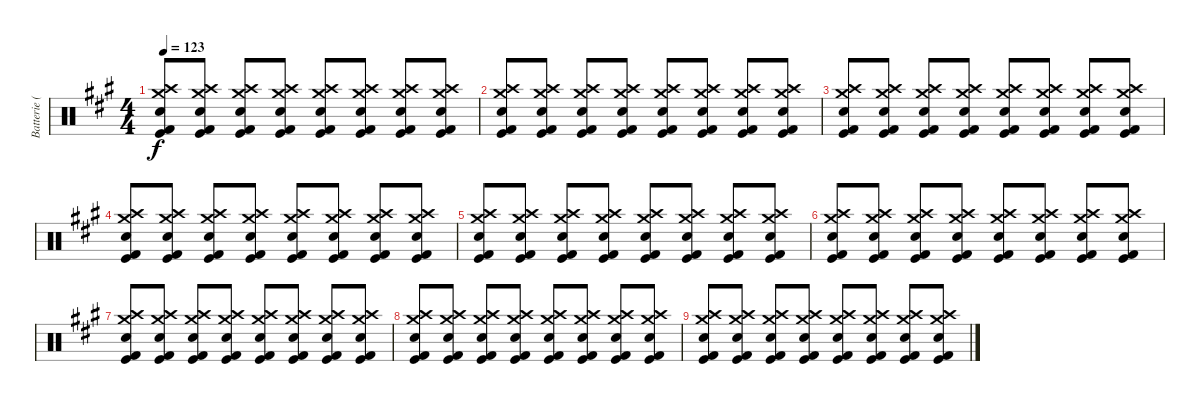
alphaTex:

\track ("Batterie (Dominic Howard)" "Batterie (") {instrument percussion}
\staff {score}
\articulation defaults
\ts (4 4)
\tempo 123
\clef neutral
\ks a
("Snare (hit) 2" "Crash medium (hit)" "Crash high (hit)" "Kick (hit) 2" "Kick (hit)").8{dy f} ("Snare (hit) 2" "Crash medium (hit)" "Crash high (hit)" "Kick (hit) 2" "Kick (hit)").8 ("Snare (hit) 2" "Crash medium (hit)" "Crash high (hit)" "Kick (hit) 2" "Kick (hit)").8 ("Snare (hit) 2" "Crash medium (hit)" "Crash high (hit)" "Kick (hit) 2" "Kick (hit)").8 ("Snare (hit) 2" "Crash medium (hit)" "Crash high (hit)" "Kick (hit) 2" "Kick (hit)").8 ("Snare (hit) 2" "Crash medium (hit)" "Crash high (hit)" "Kick (hit) 2" "Kick (hit)").8 ("Snare (hit) 2" "Crash medium (hit)" "Crash high (hit)" "Kick (hit) 2" "Kick (hit)").8 ("Snare (hit) 2" "Crash medium (hit)" "Crash high (hit)" "Kick (hit) 2" "Kick (hit)").8 |
("Snare (hit) 2" "Crash medium (hit)" "Crash high (hit)" "Kick (hit) 2" "Kick (hit)").8 ("Snare (hit) 2" "Crash medium (hit)" "Crash high (hit)" "Kick (hit) 2" "Kick (hit)").8 ("Snare (hit) 2" "Crash medium (hit)" "Crash high (hit)" "Kick (hit) 2" "Kick (hit)").8 ("Snare (hit) 2" "Crash medium (hit)" "Crash high (hit)" "Kick (hit) 2" "Kick (hit)").8 ("Snare (hit) 2" "Crash medium (hit)" "Crash high (hit)" "Kick (hit) 2" "Kick (hit)").8 ("Snare (hit) 2" "Crash medium (hit)" "Crash high (hit)" "Kick (hit) 2" "Kick (hit)").8 ("Snare (hit) 2" "Crash medium (hit)" "Crash high (hit)" "Kick (hit) 2" "Kick (hit)").8 ("Snare (hit) 2" "Crash medium (hit)" "Crash high (hit)" "Kick (hit) 2" "Kick (hit)").8 |
("Snare (hit) 2" "Crash medium (hit)" "Crash high (hit)" "Kick (hit) 2" "Kick (hit)").8 ("Snare (hit) 2" "Crash medium (hit)" "Crash high (hit)" "Kick (hit) 2" "Kick (hit)").8 ("Snare (hit) 2" "Crash medium (hit)" "Crash high (hit)" "Kick (hit) 2" "Kick (hit)").8 ("Snare (hit) 2" "Crash medium (hit)" "Crash high (hit)" "Kick (hit) 2" "Kick (hit)").8 ("Snare (hit) 2" "Crash medium (hit)" "Crash high (hit)" "Kick (hit) 2" "Kick (hit)").8 ("Snare (hit) 2" "Crash medium (hit)" "Crash high (hit)" "Kick (hit) 2" "Kick (hit)").8 ("Snare (hit) 2" "Crash medium (hit)" "Crash high (hit)" "Kick (hit) 2" "Kick (hit)").8 ("Snare (hit) 2" "Crash medium (hit)" "Crash high (hit)" "Kick (hit) 2" "Kick (hit)").8 |
("Snare (hit) 2" "Crash medium (hit)" "Crash high (hit)" "Kick (hit) 2" "Kick (hit)").8 ("Snare (hit) 2" "Crash medium (hit)" "Crash high (hit)" "Kick (hit) 2" "Kick (hit)").8 ("Snare (hit) 2" "Crash medium (hit)" "Crash high (hit)" "Kick (hit) 2" "Kick (hit)").8 ("Snare (hit) 2" "Crash medium (hit)" "Crash high (hit)" "Kick (hit) 2" "Kick (hit)").8 ("Snare (hit) 2" "Crash medium (hit)" "Crash high (hit)" "Kick (hit) 2" "Kick (hit)").8 ("Snare (hit) 2" "Crash medium (hit)" "Crash high (hit)" "Kick (hit) 2" "Kick (hit)").8 ("Snare (hit) 2" "Crash medium (hit)" "Crash high (hit)" "Kick (hit) 2" "Kick (hit)").8 ("Snare (hit) 2" "Crash medium (hit)" "Crash high (hit)" "Kick (hit) 2" "Kick (hit)").8 |
("Snare (hit) 2" "Crash medium (hit)" "Crash high (hit)" "Kick (hit) 2" "Kick (hit)").8 ("Snare (hit) 2" "Crash medium (hit)" "Crash high (hit)" "Kick (hit) 2" "Kick (hit)").8 ("Snare (hit) 2" "Crash medium (hit)" "Crash high (hit)" "Kick (hit) 2" "Kick (hit)").8 ("Snare (hit) 2" "Crash medium (hit)" "Crash high (hit)" "Kick (hit) 2" "Kick (hit)").8 ("Snare (hit) 2" "Crash medium (hit)" "Crash high (hit)" "Kick (hit) 2" "Kick (hit)").8 ("Snare (hit) 2" "Crash medium (hit)" "Crash high (hit)" "Kick (hit) 2" "Kick (hit)").8 ("Snare (hit) 2" "Crash medium (hit)" "Crash high (hit)" "Kick (hit) 2" "Kick (hit)").8 ("Snare (hit) 2" "Crash medium (hit)" "Crash high (hit)" "Kick (hit) 2" "Kick (hit)").8 |
("Snare (hit) 2" "Crash medium (hit)" "Crash high (hit)" "Kick (hit) 2" "Kick (hit)").8 ("Snare (hit) 2" "Crash medium (hit)" "Crash high (hit)" "Kick (hit) 2" "Kick (hit)").8 ("Snare (hit) 2" "Crash medium (hit)" "Crash high (hit)" "Kick (hit) 2" "Kick (hit)").8 ("Snare (hit) 2" "Crash medium (hit)" "Crash high (hit)" "Kick (hit) 2" "Kick (hit)").8 ("Snare (hit) 2" "Crash medium (hit)" "Crash high (hit)" "Kick (hit) 2" "Kick (hit)").8 ("Snare (hit) 2" "Crash medium (hit)" "Crash high (hit)" "Kick (hit) 2" "Kick (hit)").8 ("Snare (hit) 2" "Crash medium (hit)" "Crash high (hit)" "Kick (hit) 2" "Kick (hit)").8 ("Snare (hit) 2" "Crash medium (hit)" "Crash high (hit)" "Kick (hit) 2" "Kick (hit)").8 |
("Snare (hit) 2" "Crash medium (hit)" "Crash high (hit)" "Kick (hit) 2" "Kick (hit)").8 ("Snare (hit) 2" "Crash medium (hit)" "Crash high (hit)" "Kick (hit) 2" "Kick (hit)").8 ("Snare (hit) 2" "Crash medium (hit)" "Crash high (hit)" "Kick (hit) 2" "Kick (hit)").8 ("Snare (hit) 2" "Crash medium (hit)" "Crash high (hit)" "Kick (hit) 2" "Kick (hit)").8 ("Snare (hit) 2" "Crash medium (hit)" "Crash high (hit)" "Kick (hit) 2" "Kick (hit)").8 ("Snare (hit) 2" "Crash medium (hit)" "Crash high (hit)" "Kick (hit) 2" "Kick (hit)").8 ("Snare (hit) 2" "Crash medium (hit)" "Crash high (hit)" "Kick (hit) 2" "Kick (hit)").8 ("Snare (hit) 2" "Crash medium (hit)" "Crash high (hit)" "Kick (hit) 2" "Kick (hit)").8 |
("Snare (hit) 2" "Crash medium (hit)" "Crash high (hit)" "Kick (hit) 2" "Kick (hit)").8 ("Snare (hit) 2" "Crash medium (hit)" "Crash high (hit)" "Kick (hit) 2" "Kick (hit)").8 ("Snare (hit) 2" "Crash medium (hit)" "Crash high (hit)" "Kick (hit) 2" "Kick (hit)").8 ("Snare (hit) 2" "Crash medium (hit)" "Crash high (hit)" "Kick (hit) 2" "Kick (hit)").8 ("Snare (hit) 2" "Crash medium (hit)" "Crash high (hit)" "Kick (hit) 2" "Kick (hit)").8 ("Snare (hit) 2" "Crash medium (hit)" "Crash high (hit)" "Kick (hit) 2" "Kick (hit)").8 ("Snare (hit) 2" "Crash medium (hit)" "Crash high (hit)" "Kick (hit) 2" "Kick (hit)").8 ("Snare (hit) 2" "Crash medium (hit)" "Crash high (hit)" "Kick (hit) 2" "Kick (hit)").8 |
("Snare (hit) 2" "Crash medium (hit)" "Crash high (hit)" "Kick (hit) 2" "Kick (hit)").8 ("Snare (hit) 2" "Crash medium (hit)" "Crash high (hit)" "Kick (hit) 2" "Kick (hit)").8 ("Snare (hit) 2" "Crash medium (hit)" "Crash high (hit)" "Kick (hit) 2" "Kick (hit)").8 ("Snare (hit) 2" "Crash medium (hit)" "Crash high (hit)" "Kick (hit) 2" "Kick (hit)").8 ("Snare (hit) 2" "Crash medium (hit)" "Crash high (hit)" "Kick (hit) 2" "Kick (hit)").8 ("Snare (hit) 2" "Crash medium (hit)" "Crash high (hit)" "Kick (hit) 2" "Kick (hit)").8 ("Snare (hit) 2" "Crash medium (hit)" "Crash high (hit)" "Kick (hit) 2" "Kick (hit)").8 ("Snare (hit) 2" "Crash medium (hit)" "Crash high (hit)" "Kick (hit) 2" "Kick (hit)").8
